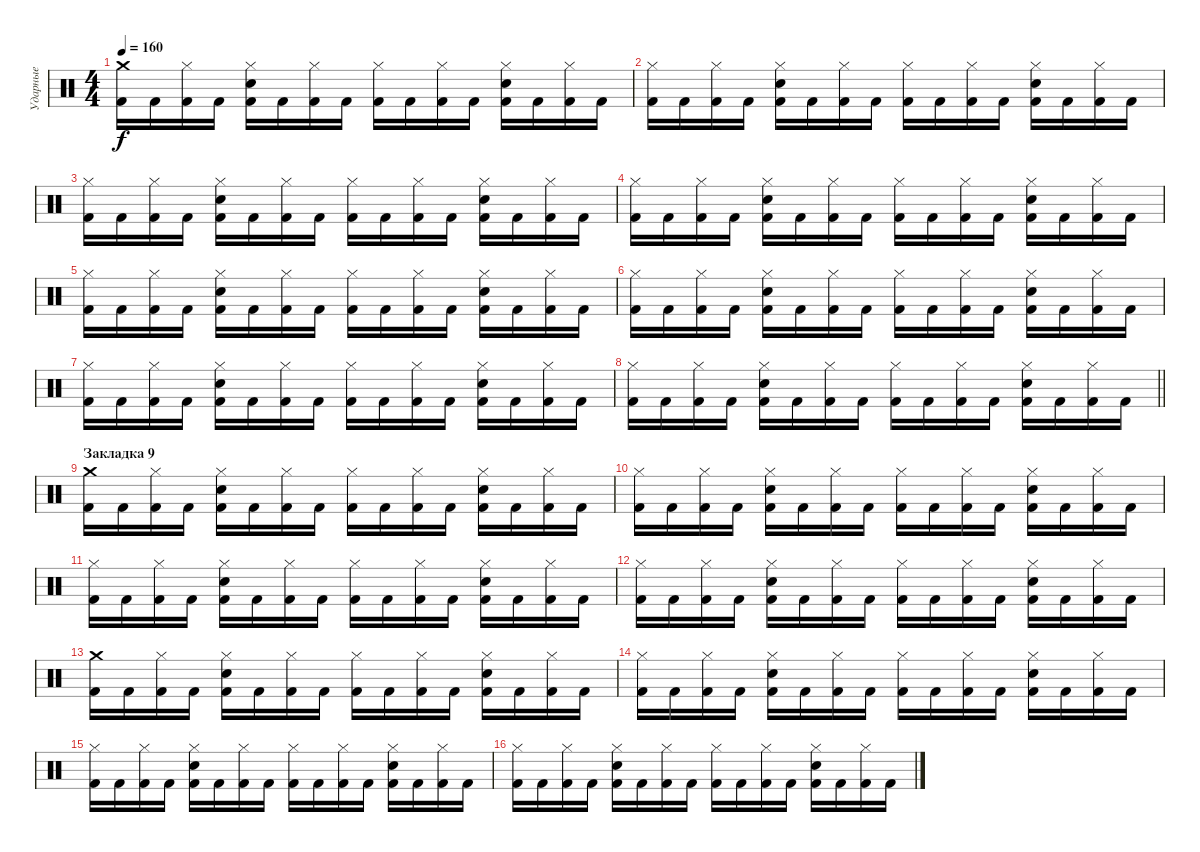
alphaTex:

\track ("Ударные" "Ударные") {instrument percussion}
\staff {score}
\articulation defaults
\ts (4 4)
\tempo 160
\clef neutral
\ks c
("Crash medium (hit)" "Kick (hit) 2").16{dy f} "Kick (hit) 2".16 ("Hi-Hat (closed)" "Kick (hit) 2").16 "Kick (hit) 2".16 ("Electric Snare (hit)" "Hi-Hat (closed)" "Kick (hit) 2").16 "Kick (hit) 2".16 ("Hi-Hat (closed)" "Kick (hit) 2").16 "Kick (hit) 2".16 ("Hi-Hat (closed)" "Kick (hit) 2").16 "Kick (hit) 2".16 ("Hi-Hat (closed)" "Kick (hit) 2").16 "Kick (hit) 2".16 ("Electric Snare (hit)" "Hi-Hat (closed)" "Kick (hit) 2").16 "Kick (hit) 2".16 ("Hi-Hat (closed)" "Kick (hit) 2").16 "Kick (hit) 2".16 |
("Hi-Hat (closed)" "Kick (hit) 2").16 "Kick (hit) 2".16 ("Hi-Hat (closed)" "Kick (hit) 2").16 "Kick (hit) 2".16 ("Electric Snare (hit)" "Hi-Hat (closed)" "Kick (hit) 2").16 "Kick (hit) 2".16 ("Hi-Hat (closed)" "Kick (hit) 2").16 "Kick (hit) 2".16 ("Hi-Hat (closed)" "Kick (hit) 2").16 "Kick (hit) 2".16 ("Hi-Hat (closed)" "Kick (hit) 2").16 "Kick (hit) 2".16 ("Electric Snare (hit)" "Hi-Hat (closed)" "Kick (hit) 2").16 "Kick (hit) 2".16 ("Hi-Hat (closed)" "Kick (hit) 2").16 "Kick (hit) 2".16 |
("Hi-Hat (closed)" "Kick (hit) 2").16 "Kick (hit) 2".16 ("Hi-Hat (closed)" "Kick (hit) 2").16 "Kick (hit) 2".16 ("Electric Snare (hit)" "Hi-Hat (closed)" "Kick (hit) 2").16 "Kick (hit) 2".16 ("Hi-Hat (closed)" "Kick (hit) 2").16 "Kick (hit) 2".16 ("Hi-Hat (closed)" "Kick (hit) 2").16 "Kick (hit) 2".16 ("Hi-Hat (closed)" "Kick (hit) 2").16 "Kick (hit) 2".16 ("Electric Snare (hit)" "Hi-Hat (closed)" "Kick (hit) 2").16 "Kick (hit) 2".16 ("Hi-Hat (closed)" "Kick (hit) 2").16 "Kick (hit) 2".16 |
("Hi-Hat (closed)" "Kick (hit) 2").16 "Kick (hit) 2".16 ("Hi-Hat (closed)" "Kick (hit) 2").16 "Kick (hit) 2".16 ("Electric Snare (hit)" "Hi-Hat (closed)" "Kick (hit) 2").16 "Kick (hit) 2".16 ("Hi-Hat (closed)" "Kick (hit) 2").16 "Kick (hit) 2".16 ("Hi-Hat (closed)" "Kick (hit) 2").16 "Kick (hit) 2".16 ("Hi-Hat (closed)" "Kick (hit) 2").16 "Kick (hit) 2".16 ("Electric Snare (hit)" "Hi-Hat (closed)" "Kick (hit) 2").16 "Kick (hit) 2".16 ("Hi-Hat (closed)" "Kick (hit) 2").16 "Kick (hit) 2".16 |
("Hi-Hat (closed)" "Kick (hit) 2").16 "Kick (hit) 2".16 ("Hi-Hat (closed)" "Kick (hit) 2").16 "Kick (hit) 2".16 ("Electric Snare (hit)" "Hi-Hat (closed)" "Kick (hit) 2").16 "Kick (hit) 2".16 ("Hi-Hat (closed)" "Kick (hit) 2").16 "Kick (hit) 2".16 ("Hi-Hat (closed)" "Kick (hit) 2").16 "Kick (hit) 2".16 ("Hi-Hat (closed)" "Kick (hit) 2").16 "Kick (hit) 2".16 ("Electric Snare (hit)" "Hi-Hat (closed)" "Kick (hit) 2").16 "Kick (hit) 2".16 ("Hi-Hat (closed)" "Kick (hit) 2").16 "Kick (hit) 2".16 |
("Hi-Hat (closed)" "Kick (hit) 2").16 "Kick (hit) 2".16 ("Hi-Hat (closed)" "Kick (hit) 2").16 "Kick (hit) 2".16 ("Electric Snare (hit)" "Hi-Hat (closed)" "Kick (hit) 2").16 "Kick (hit) 2".16 ("Hi-Hat (closed)" "Kick (hit) 2").16 "Kick (hit) 2".16 ("Hi-Hat (closed)" "Kick (hit) 2").16 "Kick (hit) 2".16 ("Hi-Hat (closed)" "Kick (hit) 2").16 "Kick (hit) 2".16 ("Electric Snare (hit)" "Hi-Hat (closed)" "Kick (hit) 2").16 "Kick (hit) 2".16 ("Hi-Hat (closed)" "Kick (hit) 2").16 "Kick (hit) 2".16 |
("Hi-Hat (closed)" "Kick (hit) 2").16 "Kick (hit) 2".16 ("Hi-Hat (closed)" "Kick (hit) 2").16 "Kick (hit) 2".16 ("Electric Snare (hit)" "Hi-Hat (closed)" "Kick (hit) 2").16 "Kick (hit) 2".16 ("Hi-Hat (closed)" "Kick (hit) 2").16 "Kick (hit) 2".16 ("Hi-Hat (closed)" "Kick (hit) 2").16 "Kick (hit) 2".16 ("Hi-Hat (closed)" "Kick (hit) 2").16 "Kick (hit) 2".16 ("Electric Snare (hit)" "Hi-Hat (closed)" "Kick (hit) 2").16 "Kick (hit) 2".16 ("Hi-Hat (closed)" "Kick (hit) 2").16 "Kick (hit) 2".16 |
\barLineRight lightlight
("Hi-Hat (closed)" "Kick (hit) 2").16 "Kick (hit) 2".16 ("Hi-Hat (closed)" "Kick (hit) 2").16 "Kick (hit) 2".16 ("Electric Snare (hit)" "Hi-Hat (closed)" "Kick (hit) 2").16 "Kick (hit) 2".16 ("Hi-Hat (closed)" "Kick (hit) 2").16 "Kick (hit) 2".16 ("Hi-Hat (closed)" "Kick (hit) 2").16 "Kick (hit) 2".16 ("Hi-Hat (closed)" "Kick (hit) 2").16 "Kick (hit) 2".16 ("Electric Snare (hit)" "Hi-Hat (closed)" "Kick (hit) 2").16 "Kick (hit) 2".16 ("Hi-Hat (closed)" "Kick (hit) 2").16 "Kick (hit) 2".16 |
\section ("" "Закладка 9")
("Crash medium (hit)" "Kick (hit) 2").16 "Kick (hit) 2".16 ("Hi-Hat (closed)" "Kick (hit) 2").16 "Kick (hit) 2".16 ("Electric Snare (hit)" "Hi-Hat (closed)" "Kick (hit) 2").16 "Kick (hit) 2".16 ("Hi-Hat (closed)" "Kick (hit) 2").16 "Kick (hit) 2".16 ("Hi-Hat (closed)" "Kick (hit) 2").16 "Kick (hit) 2".16 ("Hi-Hat (closed)" "Kick (hit) 2").16 "Kick (hit) 2".16 ("Electric Snare (hit)" "Hi-Hat (closed)" "Kick (hit) 2").16 "Kick (hit) 2".16 ("Hi-Hat (closed)" "Kick (hit) 2").16 "Kick (hit) 2".16 |
("Hi-Hat (closed)" "Kick (hit) 2").16 "Kick (hit) 2".16 ("Hi-Hat (closed)" "Kick (hit) 2").16 "Kick (hit) 2".16 ("Electric Snare (hit)" "Hi-Hat (closed)" "Kick (hit) 2").16 "Kick (hit) 2".16 ("Hi-Hat (closed)" "Kick (hit) 2").16 "Kick (hit) 2".16 ("Hi-Hat (closed)" "Kick (hit) 2").16 "Kick (hit) 2".16 ("Hi-Hat (closed)" "Kick (hit) 2").16 "Kick (hit) 2".16 ("Electric Snare (hit)" "Hi-Hat (closed)" "Kick (hit) 2").16 "Kick (hit) 2".16 ("Hi-Hat (closed)" "Kick (hit) 2").16 "Kick (hit) 2".16 |
("Hi-Hat (closed)" "Kick (hit) 2").16 "Kick (hit) 2".16 ("Hi-Hat (closed)" "Kick (hit) 2").16 "Kick (hit) 2".16 ("Electric Snare (hit)" "Hi-Hat (closed)" "Kick (hit) 2").16 "Kick (hit) 2".16 ("Hi-Hat (closed)" "Kick (hit) 2").16 "Kick (hit) 2".16 ("Hi-Hat (closed)" "Kick (hit) 2").16 "Kick (hit) 2".16 ("Hi-Hat (closed)" "Kick (hit) 2").16 "Kick (hit) 2".16 ("Electric Snare (hit)" "Hi-Hat (closed)" "Kick (hit) 2").16 "Kick (hit) 2".16 ("Hi-Hat (closed)" "Kick (hit) 2").16 "Kick (hit) 2".16 |
("Hi-Hat (closed)" "Kick (hit) 2").16 "Kick (hit) 2".16 ("Hi-Hat (closed)" "Kick (hit) 2").16 "Kick (hit) 2".16 ("Electric Snare (hit)" "Hi-Hat (closed)" "Kick (hit) 2").16 "Kick (hit) 2".16 ("Hi-Hat (closed)" "Kick (hit) 2").16 "Kick (hit) 2".16 ("Hi-Hat (closed)" "Kick (hit) 2").16 "Kick (hit) 2".16 ("Hi-Hat (closed)" "Kick (hit) 2").16 "Kick (hit) 2".16 ("Electric Snare (hit)" "Hi-Hat (closed)" "Kick (hit) 2").16 "Kick (hit) 2".16 ("Hi-Hat (closed)" "Kick (hit) 2").16 "Kick (hit) 2".16 |
("Crash medium (hit)" "Kick (hit) 2").16 "Kick (hit) 2".16 ("Hi-Hat (closed)" "Kick (hit) 2").16 "Kick (hit) 2".16 ("Electric Snare (hit)" "Hi-Hat (closed)" "Kick (hit) 2").16 "Kick (hit) 2".16 ("Hi-Hat (closed)" "Kick (hit) 2").16 "Kick (hit) 2".16 ("Hi-Hat (closed)" "Kick (hit) 2").16 "Kick (hit) 2".16 ("Hi-Hat (closed)" "Kick (hit) 2").16 "Kick (hit) 2".16 ("Electric Snare (hit)" "Hi-Hat (closed)" "Kick (hit) 2").16 "Kick (hit) 2".16 ("Hi-Hat (closed)" "Kick (hit) 2").16 "Kick (hit) 2".16 |
("Hi-Hat (closed)" "Kick (hit) 2").16 "Kick (hit) 2".16 ("Hi-Hat (closed)" "Kick (hit) 2").16 "Kick (hit) 2".16 ("Electric Snare (hit)" "Hi-Hat (closed)" "Kick (hit) 2").16 "Kick (hit) 2".16 ("Hi-Hat (closed)" "Kick (hit) 2").16 "Kick (hit) 2".16 ("Hi-Hat (closed)" "Kick (hit) 2").16 "Kick (hit) 2".16 ("Hi-Hat (closed)" "Kick (hit) 2").16 "Kick (hit) 2".16 ("Electric Snare (hit)" "Hi-Hat (closed)" "Kick (hit) 2").16 "Kick (hit) 2".16 ("Hi-Hat (closed)" "Kick (hit) 2").16 "Kick (hit) 2".16 |
("Hi-Hat (closed)" "Kick (hit) 2").16 "Kick (hit) 2".16 ("Hi-Hat (closed)" "Kick (hit) 2").16 "Kick (hit) 2".16 ("Electric Snare (hit)" "Hi-Hat (closed)" "Kick (hit) 2").16 "Kick (hit) 2".16 ("Hi-Hat (closed)" "Kick (hit) 2").16 "Kick (hit) 2".16 ("Hi-Hat (closed)" "Kick (hit) 2").16 "Kick (hit) 2".16 ("Hi-Hat (closed)" "Kick (hit) 2").16 "Kick (hit) 2".16 ("Electric Snare (hit)" "Hi-Hat (closed)" "Kick (hit) 2").16 "Kick (hit) 2".16 ("Hi-Hat (closed)" "Kick (hit) 2").16 "Kick (hit) 2".16 |
("Hi-Hat (closed)" "Kick (hit) 2").16 "Kick (hit) 2".16 ("Hi-Hat (closed)" "Kick (hit) 2").16 "Kick (hit) 2".16 ("Electric Snare (hit)" "Hi-Hat (closed)" "Kick (hit) 2").16 "Kick (hit) 2".16 ("Hi-Hat (closed)" "Kick (hit) 2").16 "Kick (hit) 2".16 ("Hi-Hat (closed)" "Kick (hit) 2").16 "Kick (hit) 2".16 ("Hi-Hat (closed)" "Kick (hit) 2").16 "Kick (hit) 2".16 ("Electric Snare (hit)" "Hi-Hat (closed)" "Kick (hit) 2").16 "Kick (hit) 2".16 ("Hi-Hat (closed)" "Kick (hit) 2").16 "Kick (hit) 2".16
